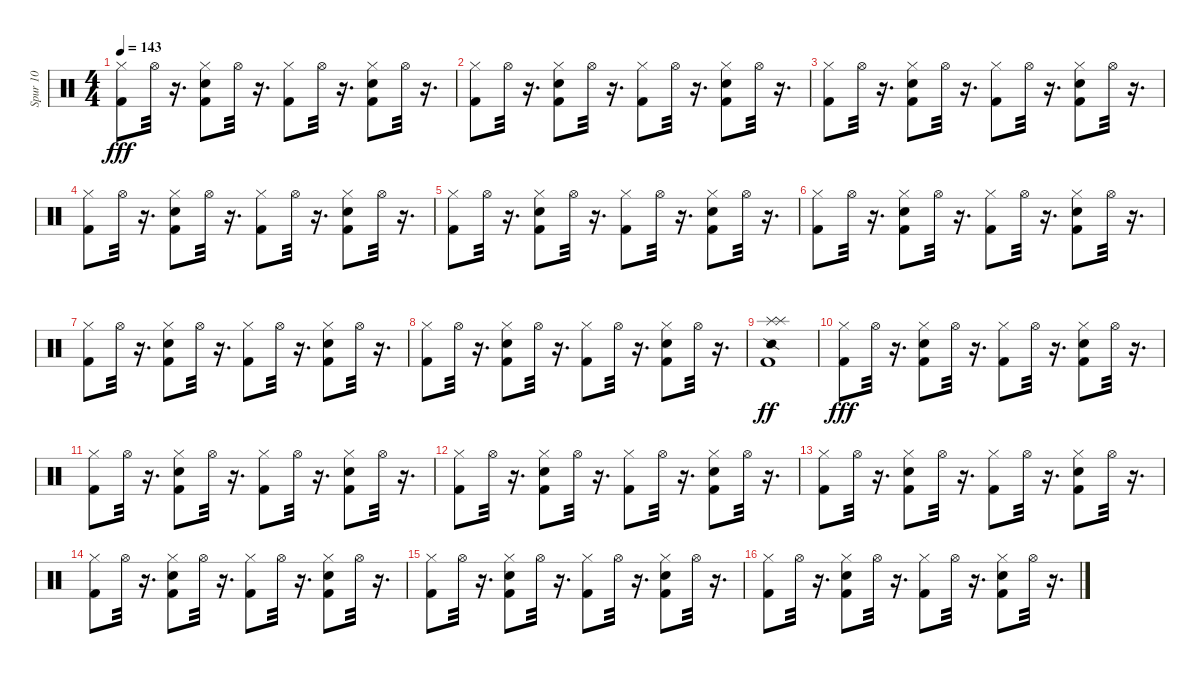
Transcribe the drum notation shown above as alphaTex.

\track ("Spur 10" "Spur 10") {instrument percussion}
\staff {score}
\articulation defaults
\ts (4 4)
\tempo 143
\clef neutral
\ks c
("Hi-Hat (closed)" "Kick (hit) 2").8{dy fff} "Hi-Hat (open)".32 r.16{d} ("Hi-Hat (closed)" "Electric Snare (hit)" "Kick (hit) 2").8 "Hi-Hat (open)".32 r.16{d} ("Hi-Hat (closed)" "Kick (hit) 2").8 "Hi-Hat (open)".32 r.16{d} ("Hi-Hat (closed)" "Electric Snare (hit)" "Kick (hit) 2").8 "Hi-Hat (open)".32 r.16{d} |
("Hi-Hat (closed)" "Kick (hit) 2").8 "Hi-Hat (open)".32 r.16{d} ("Hi-Hat (closed)" "Electric Snare (hit)" "Kick (hit) 2").8 "Hi-Hat (open)".32 r.16{d} ("Hi-Hat (closed)" "Kick (hit) 2").8 "Hi-Hat (open)".32 r.16{d} ("Hi-Hat (closed)" "Electric Snare (hit)" "Kick (hit) 2").8 "Hi-Hat (open)".32 r.16{d} |
("Hi-Hat (closed)" "Kick (hit) 2").8 "Hi-Hat (open)".32 r.16{d} ("Hi-Hat (closed)" "Electric Snare (hit)" "Kick (hit) 2").8 "Hi-Hat (open)".32 r.16{d} ("Hi-Hat (closed)" "Kick (hit) 2").8 "Hi-Hat (open)".32 r.16{d} ("Hi-Hat (closed)" "Electric Snare (hit)" "Kick (hit) 2").8 "Hi-Hat (open)".32 r.16{d} |
("Hi-Hat (closed)" "Kick (hit) 2").8 "Hi-Hat (open)".32 r.16{d} ("Hi-Hat (closed)" "Electric Snare (hit)" "Kick (hit) 2").8 "Hi-Hat (open)".32 r.16{d} ("Hi-Hat (closed)" "Kick (hit) 2").8 "Hi-Hat (open)".32 r.16{d} ("Hi-Hat (closed)" "Electric Snare (hit)" "Kick (hit) 2").8 "Hi-Hat (open)".32 r.16{d} |
("Hi-Hat (closed)" "Kick (hit) 2").8 "Hi-Hat (open)".32 r.16{d} ("Hi-Hat (closed)" "Electric Snare (hit)" "Kick (hit) 2").8 "Hi-Hat (open)".32 r.16{d} ("Hi-Hat (closed)" "Kick (hit) 2").8 "Hi-Hat (open)".32 r.16{d} ("Hi-Hat (closed)" "Electric Snare (hit)" "Kick (hit) 2").8 "Hi-Hat (open)".32 r.16{d} |
("Hi-Hat (closed)" "Kick (hit) 2").8 "Hi-Hat (open)".32 r.16{d} ("Hi-Hat (closed)" "Electric Snare (hit)" "Kick (hit) 2").8 "Hi-Hat (open)".32 r.16{d} ("Hi-Hat (closed)" "Kick (hit) 2").8 "Hi-Hat (open)".32 r.16{d} ("Hi-Hat (closed)" "Electric Snare (hit)" "Kick (hit) 2").8 "Hi-Hat (open)".32 r.16{d} |
("Hi-Hat (closed)" "Kick (hit) 2").8 "Hi-Hat (open)".32 r.16{d} ("Hi-Hat (closed)" "Electric Snare (hit)" "Kick (hit) 2").8 "Hi-Hat (open)".32 r.16{d} ("Hi-Hat (closed)" "Kick (hit) 2").8 "Hi-Hat (open)".32 r.16{d} ("Hi-Hat (closed)" "Electric Snare (hit)" "Kick (hit) 2").8 "Hi-Hat (open)".32 r.16{d} |
("Hi-Hat (closed)" "Kick (hit) 2").8 "Hi-Hat (open)".32 r.16{d} ("Hi-Hat (closed)" "Electric Snare (hit)" "Kick (hit) 2").8 "Hi-Hat (open)".32 r.16{d} ("Hi-Hat (closed)" "Kick (hit) 2").8 "Hi-Hat (open)".32 r.16{d} ("Hi-Hat (closed)" "Electric Snare (hit)" "Kick (hit) 2").8 "Hi-Hat (open)".32 r.16{d} |
("Splash (hit)" "Kick (hit) 2" "Snare (side stick) 2" "Splash (hit)").1{dy ff} |
("Hi-Hat (closed)" "Kick (hit) 2").8{dy fff} "Hi-Hat (open)".32 r.16{d} ("Hi-Hat (closed)" "Electric Snare (hit)" "Kick (hit) 2").8 "Hi-Hat (open)".32 r.16{d} ("Hi-Hat (closed)" "Kick (hit) 2").8 "Hi-Hat (open)".32 r.16{d} ("Hi-Hat (closed)" "Electric Snare (hit)" "Kick (hit) 2").8 "Hi-Hat (open)".32 r.16{d} |
("Hi-Hat (closed)" "Kick (hit) 2").8 "Hi-Hat (open)".32 r.16{d} ("Hi-Hat (closed)" "Electric Snare (hit)" "Kick (hit) 2").8 "Hi-Hat (open)".32 r.16{d} ("Hi-Hat (closed)" "Kick (hit) 2").8 "Hi-Hat (open)".32 r.16{d} ("Hi-Hat (closed)" "Electric Snare (hit)" "Kick (hit) 2").8 "Hi-Hat (open)".32 r.16{d} |
("Hi-Hat (closed)" "Kick (hit) 2").8 "Hi-Hat (open)".32 r.16{d} ("Hi-Hat (closed)" "Electric Snare (hit)" "Kick (hit) 2").8 "Hi-Hat (open)".32 r.16{d} ("Hi-Hat (closed)" "Kick (hit) 2").8 "Hi-Hat (open)".32 r.16{d} ("Hi-Hat (closed)" "Electric Snare (hit)" "Kick (hit) 2").8 "Hi-Hat (open)".32 r.16{d} |
("Hi-Hat (closed)" "Kick (hit) 2").8 "Hi-Hat (open)".32 r.16{d} ("Hi-Hat (closed)" "Electric Snare (hit)" "Kick (hit) 2").8 "Hi-Hat (open)".32 r.16{d} ("Hi-Hat (closed)" "Kick (hit) 2").8 "Hi-Hat (open)".32 r.16{d} ("Hi-Hat (closed)" "Electric Snare (hit)" "Kick (hit) 2").8 "Hi-Hat (open)".32 r.16{d} |
("Hi-Hat (closed)" "Kick (hit) 2").8 "Hi-Hat (open)".32 r.16{d} ("Hi-Hat (closed)" "Electric Snare (hit)" "Kick (hit) 2").8 "Hi-Hat (open)".32 r.16{d} ("Hi-Hat (closed)" "Kick (hit) 2").8 "Hi-Hat (open)".32 r.16{d} ("Hi-Hat (closed)" "Electric Snare (hit)" "Kick (hit) 2").8 "Hi-Hat (open)".32 r.16{d} |
("Hi-Hat (closed)" "Kick (hit) 2").8 "Hi-Hat (open)".32 r.16{d} ("Hi-Hat (closed)" "Electric Snare (hit)" "Kick (hit) 2").8 "Hi-Hat (open)".32 r.16{d} ("Hi-Hat (closed)" "Kick (hit) 2").8 "Hi-Hat (open)".32 r.16{d} ("Hi-Hat (closed)" "Electric Snare (hit)" "Kick (hit) 2").8 "Hi-Hat (open)".32 r.16{d} |
("Hi-Hat (closed)" "Kick (hit) 2").8 "Hi-Hat (open)".32 r.16{d} ("Hi-Hat (closed)" "Electric Snare (hit)" "Kick (hit) 2").8 "Hi-Hat (open)".32 r.16{d} ("Hi-Hat (closed)" "Kick (hit) 2").8 "Hi-Hat (open)".32 r.16{d} ("Hi-Hat (closed)" "Electric Snare (hit)" "Kick (hit) 2").8 "Hi-Hat (open)".32 r.16{d}
